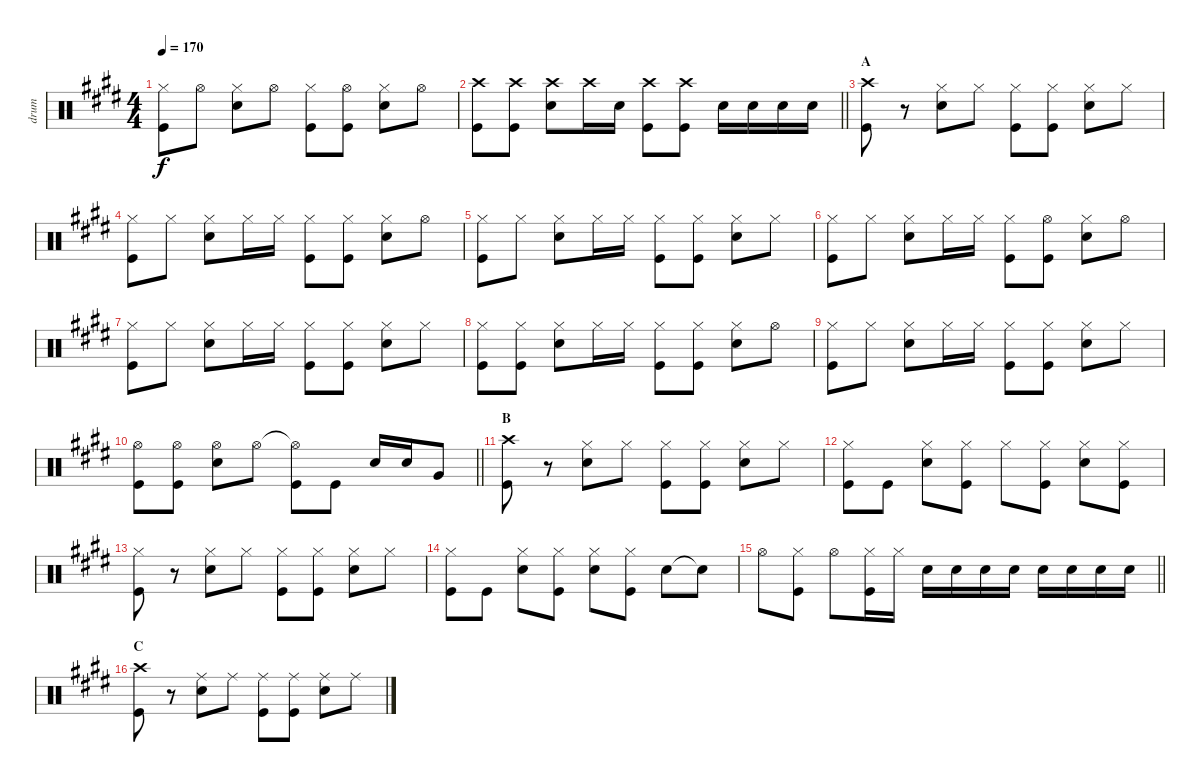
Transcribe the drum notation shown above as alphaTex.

\track ("drum" "drum") {instrument percussion}
\staff {score}
\articulation defaults
\ts (4 4)
\tempo 170
\clef neutral
\ks e
("Hi-Hat (closed)" "Kick (hit)").8{dy f} "Hi-Hat (open)".8 ("Hi-Hat (closed)" "Snare (hit) 2").8 "Hi-Hat (open)".8 ("Hi-Hat (closed)" "Kick (hit)").8 ("Hi-Hat (open)" "Kick (hit)").8 ("Hi-Hat (closed)" "Snare (hit) 2").8 "Hi-Hat (open)".8 |
\barLineRight lightlight
("Crash high (hit)" "Kick (hit)").8 ("Crash high (hit)" "Kick (hit)").8 ("Crash high (hit)" "Snare (hit) 2").8 "Crash high (hit)".16 "Snare (hit) 2".16 ("Crash high (hit)" "Kick (hit)").8 ("Crash high (hit)" "Kick (hit)").8 "Snare (hit) 2".16 "Snare (hit) 2".16 "Snare (hit) 2".16 "Snare (hit) 2".16 |
\section ("" "A")
("Crash high (hit)" "Kick (hit)").8 r.8 ("Hi-Hat (closed)" "Snare (hit) 2").8 "Hi-Hat (closed)".8 ("Hi-Hat (closed)" "Kick (hit)").8 ("Hi-Hat (closed)" "Kick (hit)").8 ("Hi-Hat (closed)" "Snare (hit) 2").8 "Hi-Hat (closed)".8 |
("Hi-Hat (closed)" "Kick (hit)").8 "Hi-Hat (closed)".8 ("Hi-Hat (closed)" "Snare (hit) 2").8 "Hi-Hat (closed)".16 "Hi-Hat (closed)".16 ("Hi-Hat (closed)" "Kick (hit)").8 ("Hi-Hat (closed)" "Kick (hit)").8 ("Hi-Hat (closed)" "Snare (hit) 2").8 "Hi-Hat (open)".8 |
("Hi-Hat (closed)" "Kick (hit)").8 "Hi-Hat (closed)".8 ("Hi-Hat (closed)" "Snare (hit) 2").8 "Hi-Hat (closed)".16 "Hi-Hat (closed)".16 ("Hi-Hat (closed)" "Kick (hit)").8 ("Hi-Hat (closed)" "Kick (hit)").8 ("Hi-Hat (closed)" "Snare (hit) 2").8 "Hi-Hat (closed)".8 |
("Hi-Hat (closed)" "Kick (hit)").8 "Hi-Hat (closed)".8 ("Hi-Hat (closed)" "Snare (hit) 2").8 "Hi-Hat (closed)".16 "Hi-Hat (closed)".16 ("Hi-Hat (closed)" "Kick (hit)").8 ("Hi-Hat (open)" "Kick (hit)").8 ("Hi-Hat (closed)" "Snare (hit) 2").8 "Hi-Hat (open)".8 |
("Hi-Hat (closed)" "Kick (hit)").8 "Hi-Hat (closed)".8 ("Hi-Hat (closed)" "Snare (hit) 2").8 "Hi-Hat (closed)".16 "Hi-Hat (closed)".16 ("Hi-Hat (closed)" "Kick (hit)").8 ("Hi-Hat (closed)" "Kick (hit)").8 ("Hi-Hat (closed)" "Snare (hit) 2").8 "Hi-Hat (closed)".8 |
("Hi-Hat (closed)" "Kick (hit)").8 ("Hi-Hat (closed)" "Kick (hit)").8 ("Hi-Hat (closed)" "Snare (hit) 2").8 "Hi-Hat (closed)".16 "Hi-Hat (closed)".16 ("Hi-Hat (closed)" "Kick (hit)").8 ("Hi-Hat (closed)" "Kick (hit)").8 ("Hi-Hat (closed)" "Snare (hit) 2").8 "Hi-Hat (open)".8 |
("Hi-Hat (closed)" "Kick (hit)").8 "Hi-Hat (closed)".8 ("Hi-Hat (closed)" "Snare (hit) 2").8 "Hi-Hat (closed)".16 "Hi-Hat (closed)".16 ("Hi-Hat (closed)" "Kick (hit)").8 ("Hi-Hat (closed)" "Kick (hit)").8 ("Hi-Hat (closed)" "Snare (hit) 2").8 "Hi-Hat (closed)".8 |
\barLineRight lightlight
("Hi-Hat (open)" "Kick (hit)").8 ("Hi-Hat (open)" "Kick (hit)").8 ("Hi-Hat (open)" "Snare (hit) 2").8 "Hi-Hat (open)".8 ("Hi-Hat (open)"{t} "Kick (hit)").8 "Kick (hit)".8 "Snare (hit) 2".16 "Snare (hit) 2".16 "Very Low Tom (hit)".8 |
\section ("" "B")
("Crash high (hit)" "Kick (hit)").8 r.8 ("Hi-Hat (closed)" "Snare (hit) 2").8 "Hi-Hat (closed)".8 ("Hi-Hat (closed)" "Kick (hit)").8 ("Hi-Hat (closed)" "Kick (hit)").8 ("Hi-Hat (closed)" "Snare (hit) 2").8 "Hi-Hat (closed)".8 |
("Hi-Hat (closed)" "Kick (hit)").8 "Kick (hit)".8 ("Hi-Hat (closed)" "Snare (hit) 2").8 ("Hi-Hat (closed)" "Kick (hit)").8 "Hi-Hat (closed)".8 ("Hi-Hat (closed)" "Kick (hit)").8 ("Hi-Hat (closed)" "Snare (hit) 2").8 ("Hi-Hat (closed)" "Kick (hit)").8 |
("Hi-Hat (closed)" "Kick (hit)").8 r.8 ("Hi-Hat (closed)" "Snare (hit) 2").8 "Hi-Hat (closed)".8 ("Hi-Hat (closed)" "Kick (hit)").8 ("Hi-Hat (closed)" "Kick (hit)").8 ("Hi-Hat (closed)" "Snare (hit) 2").8 "Hi-Hat (closed)".8 |
("Hi-Hat (closed)" "Kick (hit)").8 "Kick (hit)".8 ("Hi-Hat (closed)" "Snare (hit) 2").8 ("Hi-Hat (closed)" "Kick (hit)").8 ("Hi-Hat (closed)" "Snare (hit) 2").8 ("Hi-Hat (closed)" "Kick (hit)").8 "Snare (hit) 2".8 "Snare (hit) 2"{t}.8 |
\barLineRight lightlight "Hi-Hat (open)".8
("Hi-Hat (closed)" "Kick (hit)").8 "Hi-Hat (open)".8 ("Hi-Hat (closed)" "Kick (hit)").16 "Hi-Hat (closed)".16 "Snare (hit) 2".16 "Snare (hit) 2".16 "Snare (hit) 2".16 "Snare (hit) 2".16 "Snare (hit) 2".16 "Snare (hit) 2".16 "Snare (hit) 2".16 "Snare (hit) 2".16 |
\section ("" "C")
("Crash high (hit)" "Kick (hit)").8 r.8 ("Ride (middle)" "Snare (hit) 2").8 "Ride (middle)".8 ("Ride (middle)" "Kick (hit)").8 ("Ride (middle)" "Kick (hit)").8 ("Ride (middle)" "Snare (hit) 2").8 "Ride (middle)".8
